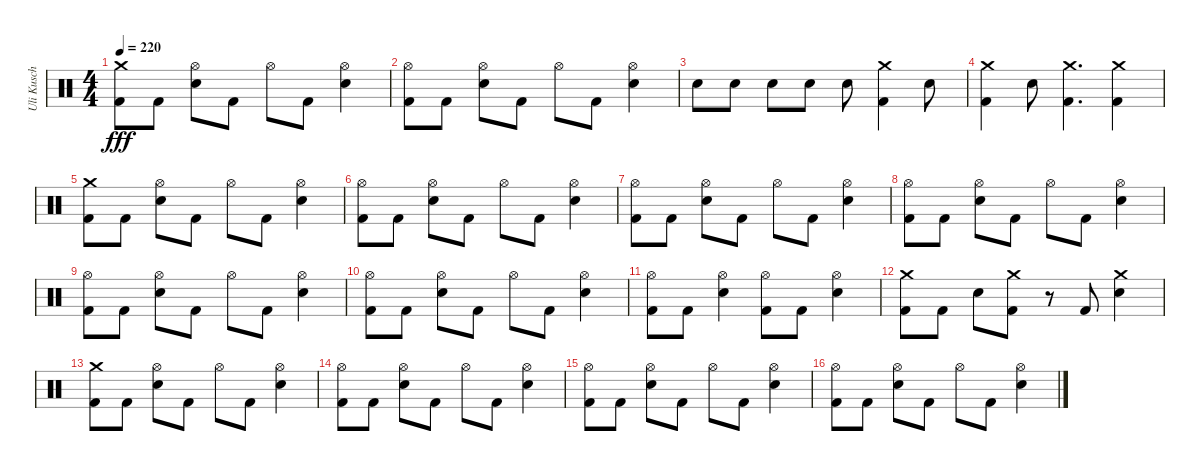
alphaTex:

\track ("Uli Kusch" "Uli Kusch") {instrument percussion}
\staff {score}
\articulation defaults
\ts (4 4)
\tempo 220
\clef neutral
\ks c
("Crash medium (hit)" "Kick (hit) 2").8{dy fff} "Kick (hit) 2".8 ("Hi-Hat (open)" "Snare (hit) 2").8 "Kick (hit) 2".8 "Hi-Hat (open)".8 "Kick (hit) 2".8 ("Hi-Hat (open)" "Snare (hit) 2").4 |
("Hi-Hat (open)" "Kick (hit) 2").8 "Kick (hit) 2".8 ("Hi-Hat (open)" "Snare (hit) 2").8 "Kick (hit) 2".8 "Hi-Hat (open)".8 "Kick (hit) 2".8 ("Hi-Hat (open)" "Snare (hit) 2").4 |
"Snare (hit) 2".8 "Snare (hit) 2".8 "Snare (hit) 2".8 "Snare (hit) 2".8 "Snare (hit) 2".8 ("Crash medium (hit)" "Kick (hit) 2").4 "Snare (hit) 2".8 |
("Crash medium (hit)" "Kick (hit) 2").4 "Snare (hit) 2".8 ("Crash medium (hit)" "Kick (hit) 2").4{d} ("Crash medium (hit)" "Kick (hit) 2").4 |
("Crash medium (hit)" "Kick (hit) 2").8 "Kick (hit) 2".8 ("Hi-Hat (open)" "Snare (hit) 2").8 "Kick (hit) 2".8 "Hi-Hat (open)".8 "Kick (hit) 2".8 ("Hi-Hat (open)" "Snare (hit) 2").4 |
("Hi-Hat (open)" "Kick (hit) 2").8 "Kick (hit) 2".8 ("Hi-Hat (open)" "Snare (hit) 2").8 "Kick (hit) 2".8 "Hi-Hat (open)".8 "Kick (hit) 2".8 ("Hi-Hat (open)" "Snare (hit) 2").4 |
("Hi-Hat (open)" "Kick (hit) 2").8 "Kick (hit) 2".8 ("Hi-Hat (open)" "Snare (hit) 2").8 "Kick (hit) 2".8 "Hi-Hat (open)".8 "Kick (hit) 2".8 ("Hi-Hat (open)" "Snare (hit) 2").4 |
("Hi-Hat (open)" "Kick (hit) 2").8 "Kick (hit) 2".8 ("Hi-Hat (open)" "Snare (hit) 2").8 "Kick (hit) 2".8 "Hi-Hat (open)".8 "Kick (hit) 2".8 ("Hi-Hat (open)" "Snare (hit) 2").4 |
("Hi-Hat (open)" "Kick (hit) 2").8 "Kick (hit) 2".8 ("Hi-Hat (open)" "Snare (hit) 2").8 "Kick (hit) 2".8 "Hi-Hat (open)".8 "Kick (hit) 2".8 ("Hi-Hat (open)" "Snare (hit) 2").4 |
("Hi-Hat (open)" "Kick (hit) 2").8 "Kick (hit) 2".8 ("Hi-Hat (open)" "Snare (hit) 2").8 "Kick (hit) 2".8 "Hi-Hat (open)".8 "Kick (hit) 2".8 ("Hi-Hat (open)" "Snare (hit) 2").4 |
("Hi-Hat (open)" "Kick (hit) 2").8 "Kick (hit) 2".8 ("Hi-Hat (open)" "Snare (hit) 2").4 ("Hi-Hat (open)" "Kick (hit) 2").8 "Kick (hit) 2".8 ("Hi-Hat (open)" "Snare (hit) 2").4 |
("Crash medium (hit)" "Kick (hit) 2").8 "Kick (hit) 2".8 "Snare (hit) 2".8 ("Crash medium (hit)" "Kick (hit) 2").8 r.8 "Kick (hit) 2".8 ("Crash medium (hit)" "Snare (hit) 2").4 |
("Crash medium (hit)" "Kick (hit) 2").8 "Kick (hit) 2".8 ("Hi-Hat (open)" "Snare (hit) 2").8 "Kick (hit) 2".8 "Hi-Hat (open)".8 "Kick (hit) 2".8 ("Hi-Hat (open)" "Snare (hit) 2").4 |
("Hi-Hat (open)" "Kick (hit) 2").8 "Kick (hit) 2".8 ("Hi-Hat (open)" "Snare (hit) 2").8 "Kick (hit) 2".8 "Hi-Hat (open)".8 "Kick (hit) 2".8 ("Hi-Hat (open)" "Snare (hit) 2").4 |
("Hi-Hat (open)" "Kick (hit) 2").8 "Kick (hit) 2".8 ("Hi-Hat (open)" "Snare (hit) 2").8 "Kick (hit) 2".8 "Hi-Hat (open)".8 "Kick (hit) 2".8 ("Hi-Hat (open)" "Snare (hit) 2").4 |
("Hi-Hat (open)" "Kick (hit) 2").8 "Kick (hit) 2".8 ("Hi-Hat (open)" "Snare (hit) 2").8 "Kick (hit) 2".8 "Hi-Hat (open)".8 "Kick (hit) 2".8 ("Hi-Hat (open)" "Snare (hit) 2").4
